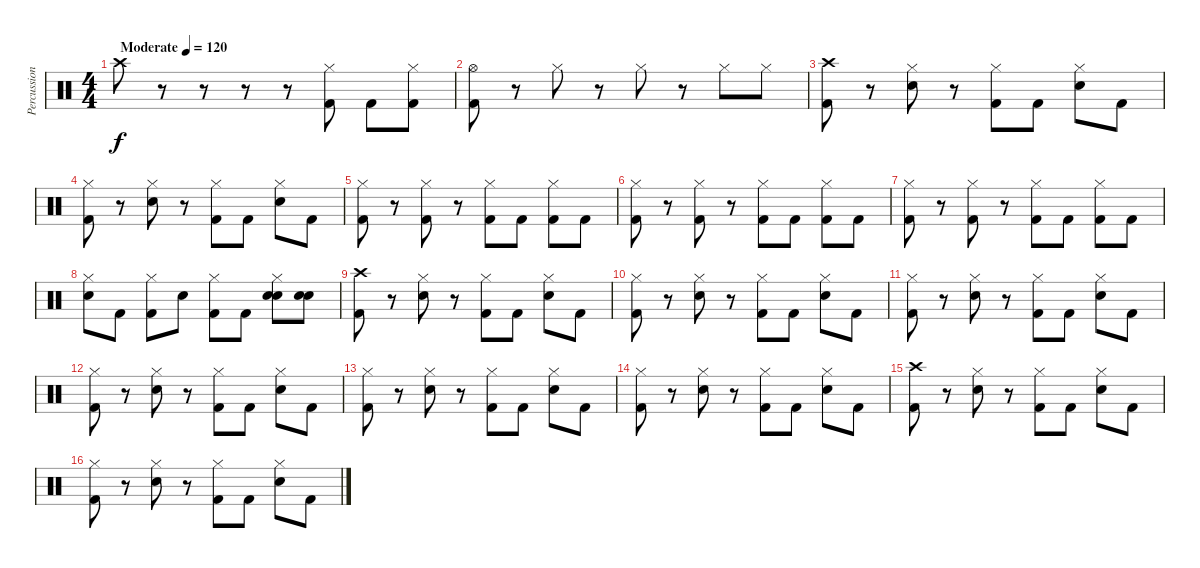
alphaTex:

\track ("Percussion" "Percussion") {instrument percussion}
\staff {score}
\articulation defaults
\ts (4 4)
\tempo (120 "Moderate")
\clef neutral
\ks c "Crash high (hit)".8{dy f}
r.8 r.8 r.8 r.8 ("Hi-Hat (closed)" "Kick (hit) 2").8 "Kick (hit) 2".8 ("Hi-Hat (closed)" "Kick (hit) 2").8 |
("Hi-Hat (open)" "Kick (hit) 2").8 r.8 "Hi-Hat (closed)".8 r.8 "Hi-Hat (closed)".8 r.8 "Hi-Hat (closed)".8 "Hi-Hat (closed)".8 |
("Crash high (hit)" "Kick (hit) 2").8 r.8 ("Hi-Hat (closed)" "Electric Snare (hit)").8 r.8 ("Hi-Hat (closed)" "Kick (hit) 2").8 "Kick (hit) 2".8 ("Hi-Hat (closed)" "Electric Snare (hit)").8 "Kick (hit) 2".8 |
("Hi-Hat (closed)" "Kick (hit) 2").8 r.8 ("Hi-Hat (closed)" "Electric Snare (hit)").8 r.8 ("Hi-Hat (closed)" "Kick (hit) 2").8 "Kick (hit) 2".8 ("Hi-Hat (closed)" "Electric Snare (hit)").8 "Kick (hit) 2".8 |
("Hi-Hat (closed)" "Kick (hit) 2").8 r.8 ("Hi-Hat (closed)" "Kick (hit) 2").8 r.8 ("Hi-Hat (closed)" "Kick (hit) 2").8 "Kick (hit) 2".8 ("Hi-Hat (closed)" "Kick (hit) 2").8 "Kick (hit) 2".8 |
("Hi-Hat (closed)" "Kick (hit) 2").8 r.8 ("Hi-Hat (closed)" "Kick (hit) 2").8 r.8 ("Hi-Hat (closed)" "Kick (hit) 2").8 "Kick (hit) 2".8 ("Hi-Hat (closed)" "Kick (hit) 2").8 "Kick (hit) 2".8 |
("Hi-Hat (closed)" "Kick (hit) 2").8 r.8 ("Hi-Hat (closed)" "Kick (hit) 2").8 r.8 ("Hi-Hat (closed)" "Kick (hit) 2").8 "Kick (hit) 2".8 ("Hi-Hat (closed)" "Kick (hit) 2").8 "Kick (hit) 2".8 |
("Hi-Hat (closed)" "Electric Snare (hit)").8 "Kick (hit) 2".8 ("Hi-Hat (closed)" "Kick (hit) 2").8 "Electric Snare (hit)".8 ("Hi-Hat (closed)" "Kick (hit) 2").8 "Kick (hit) 2".8 ("Hi-Hat (closed)" "Hand Clap (hit)" "Electric Snare (hit)").8 ("Hand Clap (hit)" "Electric Snare (hit)").8 |
("Crash high (hit)" "Kick (hit) 2").8 r.8 ("Hi-Hat (closed)" "Electric Snare (hit)").8 r.8 ("Hi-Hat (closed)" "Kick (hit) 2").8 "Kick (hit) 2".8 ("Hi-Hat (closed)" "Electric Snare (hit)").8 "Kick (hit) 2".8 |
("Hi-Hat (closed)" "Kick (hit) 2").8 r.8 ("Hi-Hat (closed)" "Electric Snare (hit)").8 r.8 ("Hi-Hat (closed)" "Kick (hit) 2").8 "Kick (hit) 2".8 ("Hi-Hat (closed)" "Electric Snare (hit)").8 "Kick (hit) 2".8 |
("Hi-Hat (closed)" "Kick (hit) 2").8 r.8 ("Hi-Hat (closed)" "Electric Snare (hit)").8 r.8 ("Hi-Hat (closed)" "Kick (hit) 2").8 "Kick (hit) 2".8 ("Hi-Hat (closed)" "Electric Snare (hit)").8 "Kick (hit) 2".8 |
("Hi-Hat (closed)" "Kick (hit) 2").8 r.8 ("Hi-Hat (closed)" "Electric Snare (hit)").8 r.8 ("Hi-Hat (closed)" "Kick (hit) 2").8 "Kick (hit) 2".8 ("Hi-Hat (closed)" "Electric Snare (hit)").8 "Kick (hit) 2".8 |
("Hi-Hat (closed)" "Kick (hit) 2").8 r.8 ("Hi-Hat (closed)" "Electric Snare (hit)").8 r.8 ("Hi-Hat (closed)" "Kick (hit) 2").8 "Kick (hit) 2".8 ("Hi-Hat (closed)" "Electric Snare (hit)").8 "Kick (hit) 2".8 |
("Hi-Hat (closed)" "Kick (hit) 2").8 r.8 ("Hi-Hat (closed)" "Electric Snare (hit)").8 r.8 ("Hi-Hat (closed)" "Kick (hit) 2").8 "Kick (hit) 2".8 ("Hi-Hat (closed)" "Electric Snare (hit)").8 "Kick (hit) 2".8 |
("Crash high (hit)" "Kick (hit) 2").8 r.8 ("Hi-Hat (closed)" "Electric Snare (hit)").8 r.8 ("Hi-Hat (closed)" "Kick (hit) 2").8 "Kick (hit) 2".8 ("Hi-Hat (closed)" "Electric Snare (hit)").8 "Kick (hit) 2".8 |
("Hi-Hat (closed)" "Kick (hit) 2").8 r.8 ("Hi-Hat (closed)" "Electric Snare (hit)").8 r.8 ("Hi-Hat (closed)" "Kick (hit) 2").8 "Kick (hit) 2".8 ("Hi-Hat (closed)" "Electric Snare (hit)").8 "Kick (hit) 2".8
